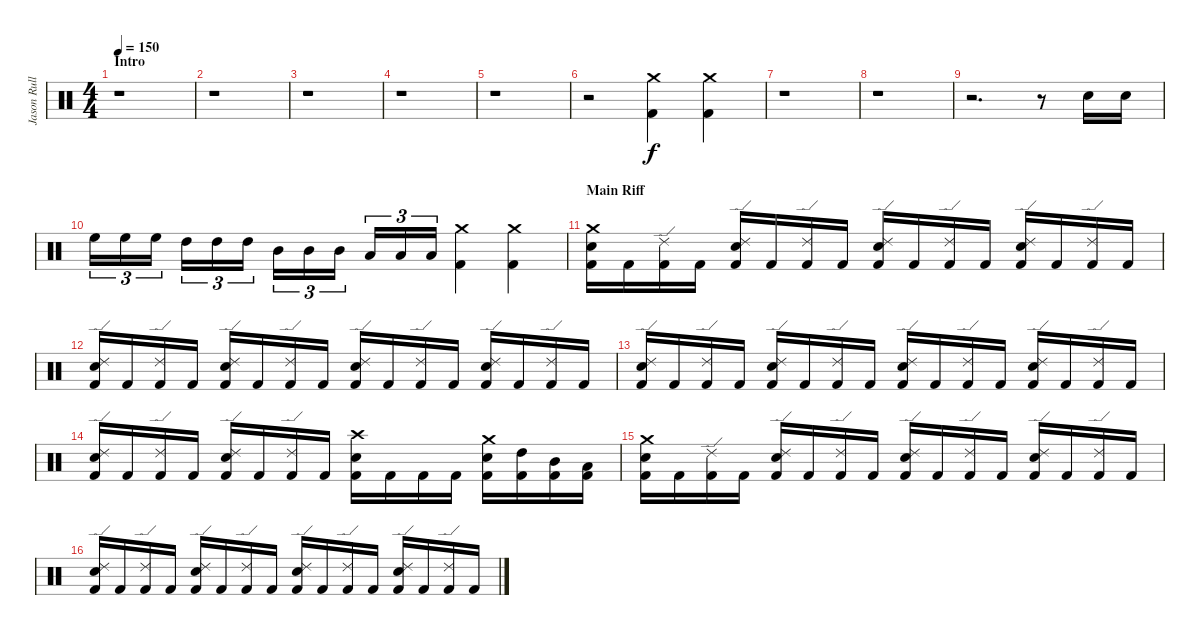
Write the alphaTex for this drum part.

\track ("Jason Rullo" "Jason Rull") {instrument percussion}
\staff {score}
\articulation defaults
\ts (4 4)
\section ("" "Intro")
\tempo 150
\clef neutral
\ks c
r.1{dy f} |
r.1 |
r.1 |
r.1 |
r.1 |
r.2 ("Crash medium (hit)" "Kick (hit) 2").4{volume 16 balance 8} ("Crash medium (hit)" "Kick (hit) 2").4 |
r.1 |
r.1 |
r.2{d} r.8 "Electric Snare (hit)".16 "Electric Snare (hit)".16 |
"High Floor Tom (hit)".16{tu (3 2)} "High Floor Tom (hit)".16{tu (3 2)} "High Floor Tom (hit)".16{tu (3 2)} "High Tom (hit)".16{tu (3 2)} "High Tom (hit)".16{tu (3 2)} "High Tom (hit)".16{tu (3 2)} "Mid Tom (hit)".16{tu (3 2)} "Mid Tom (hit)".16{tu (3 2)} "Mid Tom (hit)".16{tu (3 2)} "Low Tom (hit)".16{tu (3 2)} "Low Tom (hit)".16{tu (3 2)} "Low Tom (hit)".16{tu (3 2)} ("Crash medium (hit)" "Kick (hit) 2").4 ("Crash medium (hit)" "Kick (hit) 2").4 |
\section ("" "Main Riff")
("Crash medium (hit)" "Electric Snare (hit)" "Kick (hit) 2").16 "Kick (hit) 2".16 ("Ride (edge) 2" "Kick (hit) 2").16 "Kick (hit) 2".16 ("Ride (edge) 2" "Electric Snare (hit)" "Kick (hit) 2").16 "Kick (hit) 2".16 ("Ride (edge) 2" "Kick (hit) 2").16 "Kick (hit) 2".16 ("Ride (edge) 2" "Electric Snare (hit)" "Kick (hit) 2").16 "Kick (hit) 2".16 ("Ride (edge) 2" "Kick (hit) 2").16 "Kick (hit) 2".16 ("Ride (edge) 2" "Electric Snare (hit)" "Kick (hit) 2").16 "Kick (hit) 2".16 ("Ride (edge) 2" "Kick (hit) 2").16 "Kick (hit) 2".16 |
("Ride (edge) 2" "Electric Snare (hit)" "Kick (hit) 2").16 "Kick (hit) 2".16 ("Ride (edge) 2" "Kick (hit) 2").16 "Kick (hit) 2".16 ("Ride (edge) 2" "Electric Snare (hit)" "Kick (hit) 2").16 "Kick (hit) 2".16 ("Ride (edge) 2" "Kick (hit) 2").16 "Kick (hit) 2".16 ("Ride (edge) 2" "Electric Snare (hit)" "Kick (hit) 2").16 "Kick (hit) 2".16 ("Ride (edge) 2" "Kick (hit) 2").16 "Kick (hit) 2".16 ("Ride (edge) 2" "Electric Snare (hit)" "Kick (hit) 2").16 "Kick (hit) 2".16 ("Ride (edge) 2" "Kick (hit) 2").16 "Kick (hit) 2".16 |
("Ride (edge) 2" "Electric Snare (hit)" "Kick (hit) 2").16 "Kick (hit) 2".16 ("Ride (edge) 2" "Kick (hit) 2").16 "Kick (hit) 2".16 ("Ride (edge) 2" "Electric Snare (hit)" "Kick (hit) 2").16 "Kick (hit) 2".16 ("Ride (edge) 2" "Kick (hit) 2").16 "Kick (hit) 2".16 ("Ride (edge) 2" "Electric Snare (hit)" "Kick (hit) 2").16 "Kick (hit) 2".16 ("Ride (edge) 2" "Kick (hit) 2").16 "Kick (hit) 2".16 ("Ride (edge) 2" "Electric Snare (hit)" "Kick (hit) 2").16 "Kick (hit) 2".16 ("Ride (edge) 2" "Kick (hit) 2").16 "Kick (hit) 2".16 |
("Ride (edge) 2" "Electric Snare (hit)" "Kick (hit) 2").16 "Kick (hit) 2".16 ("Ride (edge) 2" "Kick (hit) 2").16 "Kick (hit) 2".16 ("Ride (edge) 2" "Electric Snare (hit)" "Kick (hit) 2").16 "Kick (hit) 2".16 ("Ride (edge) 2" "Kick (hit) 2").16 "Kick (hit) 2".16 ("Crash high (hit)" "Electric Snare (hit)" "Kick (hit) 2").16 "Kick (hit) 2".16 "Kick (hit) 2".16 "Kick (hit) 2".16 ("Crash medium (hit)" "Electric Snare (hit)" "Kick (hit) 2").16 ("High Tom (hit)" "Kick (hit) 2").16 ("Mid Tom (hit)" "Kick (hit) 2").16 ("Low Tom (hit)" "Kick (hit) 2").16 |
("Crash medium (hit)" "Electric Snare (hit)" "Kick (hit) 2").16 "Kick (hit) 2".16 ("Ride (edge) 2" "Kick (hit) 2").16 "Kick (hit) 2".16 ("Ride (edge) 2" "Electric Snare (hit)" "Kick (hit) 2").16 "Kick (hit) 2".16 ("Ride (edge) 2" "Kick (hit) 2").16 "Kick (hit) 2".16 ("Ride (edge) 2" "Electric Snare (hit)" "Kick (hit) 2").16 "Kick (hit) 2".16 ("Ride (edge) 2" "Kick (hit) 2").16 "Kick (hit) 2".16 ("Ride (edge) 2" "Electric Snare (hit)" "Kick (hit) 2").16 "Kick (hit) 2".16 ("Ride (edge) 2" "Kick (hit) 2").16 "Kick (hit) 2".16 |
("Ride (edge) 2" "Electric Snare (hit)" "Kick (hit) 2").16 "Kick (hit) 2".16 ("Ride (edge) 2" "Kick (hit) 2").16 "Kick (hit) 2".16 ("Ride (edge) 2" "Electric Snare (hit)" "Kick (hit) 2").16 "Kick (hit) 2".16 ("Ride (edge) 2" "Kick (hit) 2").16 "Kick (hit) 2".16 ("Ride (edge) 2" "Electric Snare (hit)" "Kick (hit) 2").16 "Kick (hit) 2".16 ("Ride (edge) 2" "Kick (hit) 2").16 "Kick (hit) 2".16 ("Ride (edge) 2" "Electric Snare (hit)" "Kick (hit) 2").16 "Kick (hit) 2".16 ("Ride (edge) 2" "Kick (hit) 2").16 "Kick (hit) 2".16
